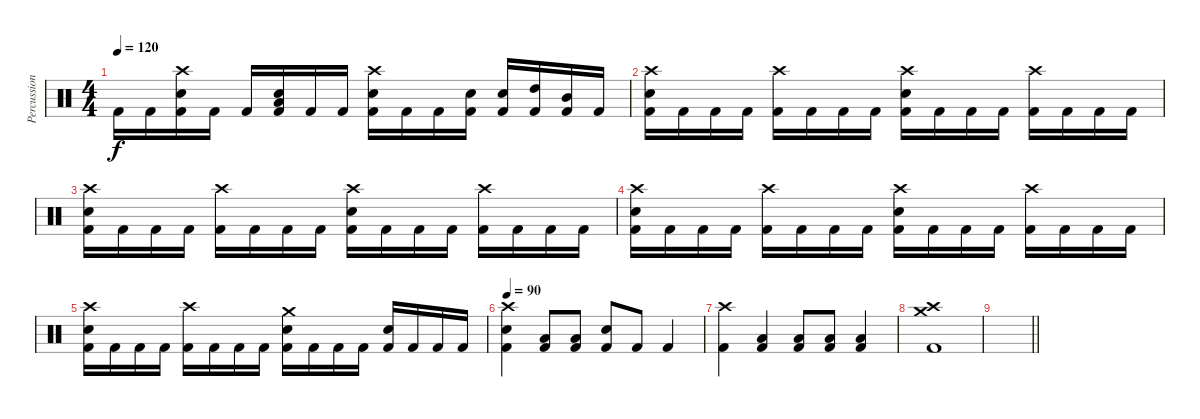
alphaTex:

\track ("Percussion" "Percussion") {instrument percussion}
\staff {score}
\articulation defaults
\ts (4 4)
\tempo 120
\clef neutral
\ks c "Kick (hit) 2".16{dy f} "Kick (hit) 2".16
("Electric Snare (hit)" "Crash high (hit)" "Kick (hit) 2").16 "Kick (hit) 2".16 "Kick (hit) 2".16 ("Low Tom (hit)" "Electric Snare (hit)" "Kick (hit) 2").16 "Kick (hit) 2".16 "Kick (hit) 2".16 ("Crash high (hit)" "Electric Snare (hit)" "Kick (hit) 2").16 "Kick (hit) 2".16 "Kick (hit) 2".16 ("Electric Snare (hit)" "Kick (hit) 2").16 ("Electric Snare (hit)" "Kick (hit) 2").16 ("High Tom (hit)" "Kick (hit) 2").16 ("Mid Tom (hit)" "Kick (hit) 2").16 "Kick (hit) 2".16 |
("Crash high (hit)" "Electric Snare (hit)" "Kick (hit) 2").16 "Kick (hit) 2".16 "Kick (hit) 2".16 "Kick (hit) 2".16 ("Crash high (hit)" "Kick (hit) 2").16 "Kick (hit) 2".16 "Kick (hit) 2".16 "Kick (hit) 2".16 ("Crash high (hit)" "Electric Snare (hit)" "Kick (hit) 2").16 "Kick (hit) 2".16 "Kick (hit) 2".16 "Kick (hit) 2".16 ("Crash high (hit)" "Kick (hit) 2").16 "Kick (hit) 2".16 "Kick (hit) 2".16 "Kick (hit) 2".16 |
("Crash high (hit)" "Electric Snare (hit)" "Kick (hit) 2").16 "Kick (hit) 2".16 "Kick (hit) 2".16 "Kick (hit) 2".16 ("Crash high (hit)" "Kick (hit) 2").16 "Kick (hit) 2".16 "Kick (hit) 2".16 "Kick (hit) 2".16 ("Crash high (hit)" "Electric Snare (hit)" "Kick (hit) 2").16 "Kick (hit) 2".16 "Kick (hit) 2".16 "Kick (hit) 2".16 ("Crash high (hit)" "Kick (hit) 2").16 "Kick (hit) 2".16 "Kick (hit) 2".16 "Kick (hit) 2".16 |
("Crash high (hit)" "Electric Snare (hit)" "Kick (hit) 2").16 "Kick (hit) 2".16 "Kick (hit) 2".16 "Kick (hit) 2".16 ("Crash high (hit)" "Kick (hit) 2").16 "Kick (hit) 2".16 "Kick (hit) 2".16 "Kick (hit) 2".16 ("Crash high (hit)" "Electric Snare (hit)" "Kick (hit) 2").16 "Kick (hit) 2".16 "Kick (hit) 2".16 "Kick (hit) 2".16 ("Crash high (hit)" "Kick (hit) 2").16 "Kick (hit) 2".16 "Kick (hit) 2".16 "Kick (hit) 2".16 |
("Crash high (hit)" "Electric Snare (hit)" "Kick (hit) 2").16 "Kick (hit) 2".16 "Kick (hit) 2".16 "Kick (hit) 2".16 ("Crash high (hit)" "Kick (hit) 2").16 "Kick (hit) 2".16 "Kick (hit) 2".16 "Kick (hit) 2".16 ("Crash medium (hit)" "Electric Snare (hit)" "Kick (hit) 2").16 "Kick (hit) 2".16 "Kick (hit) 2".16 "Kick (hit) 2".16 ("Electric Snare (hit)" "Kick (hit) 2").16 "Kick (hit) 2".16 "Kick (hit) 2".16 "Kick (hit) 2".16 |
\tempo 90
("Crash high (hit)" "Electric Snare (hit)" "Kick (hit) 2").4 ("Kick (hit) 2" "Low Tom (hit)").8 ("Kick (hit) 2" "Low Tom (hit)").8 ("Electric Snare (hit)" "Kick (hit) 2").8 "Kick (hit) 2".8 "Kick (hit) 2".4 |
("Kick (hit) 2" "Crash high (hit)").4 ("Kick (hit) 2" "Low Tom (hit)").4 ("Kick (hit) 2" "Low Tom (hit)").8 ("Kick (hit) 2" "Low Tom (hit)").8 ("Kick (hit) 2" "Low Tom (hit)").4 |
("Crash high (hit)" "Crash medium (hit)" "Kick (hit) 2").1 |
\barLineRight lightlight
